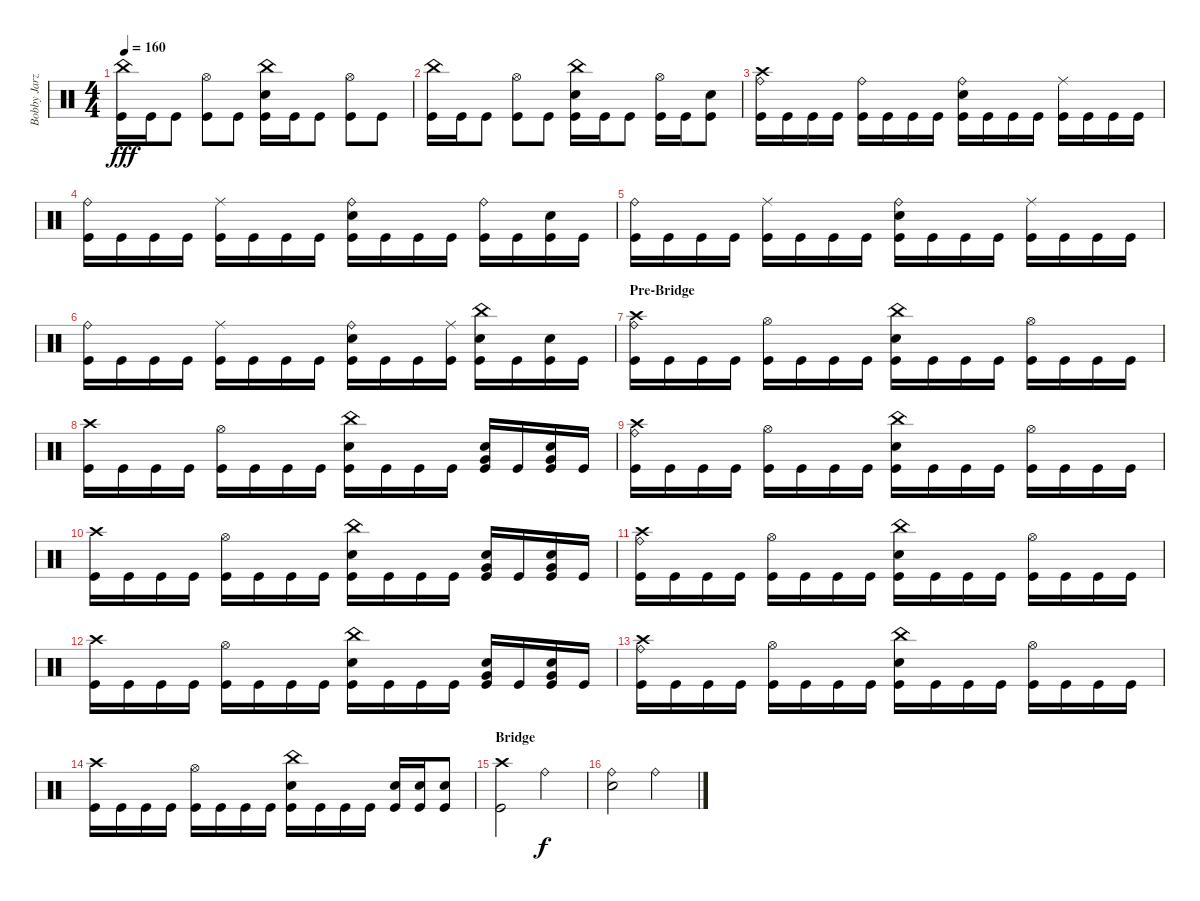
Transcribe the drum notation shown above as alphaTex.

\track ("Bobby Jarzombek" "Bobby Jarz") {instrument percussion}
\staff {score}
\articulation defaults
\ts (4 4)
\tempo 160
\clef neutral
\ks c
("China (hit)" "Kick (hit)").16{dy fff} "Kick (hit)".16 "Kick (hit)".8 ("Hi-Hat (open)" "Kick (hit)").8 "Kick (hit)".8 ("China (hit)" "Electric Snare (hit)" "Kick (hit)").16 "Kick (hit)".16 "Kick (hit)".8 ("Hi-Hat (open)" "Kick (hit)").8 "Kick (hit)".8 |
("China (hit)" "Kick (hit)").16 "Kick (hit)".16 "Kick (hit)".8 ("Hi-Hat (open)" "Kick (hit)").8 "Kick (hit)".8 ("China (hit)" "Electric Snare (hit)" "Kick (hit)").16 "Kick (hit)".16 "Kick (hit)".8 ("Hi-Hat (open)" "Kick (hit)").16 "Kick (hit)".16 ("Electric Snare (hit)" "Kick (hit)").8 |
("Crash high (hit)" "Ride (bell)" "Kick (hit)").16 "Kick (hit)".16 "Kick (hit)".16 "Kick (hit)".16 ("Ride (bell)" "Kick (hit)").16 "Kick (hit)".16 "Kick (hit)".16 "Kick (hit)".16 ("Ride (bell)" "Electric Snare (hit)" "Kick (hit)").16 "Kick (hit)".16 "Kick (hit)".16 "Kick (hit)".16 ("Ride (middle)" "Kick (hit)").16 "Kick (hit)".16 "Kick (hit)".16 "Kick (hit)".16 |
("Ride (bell)" "Kick (hit)").16 "Kick (hit)".16 "Kick (hit)".16 "Kick (hit)".16 ("Ride (middle)" "Kick (hit)").16 "Kick (hit)".16 "Kick (hit)".16 "Kick (hit)".16 ("Ride (bell)" "Electric Snare (hit)" "Kick (hit)").16 "Kick (hit)".16 "Kick (hit)".16 "Kick (hit)".16 ("Ride (bell)" "Kick (hit)").16 "Kick (hit)".16 ("Electric Snare (hit)" "Kick (hit)").16 "Kick (hit)".16 |
("Ride (bell)" "Kick (hit)").16 "Kick (hit)".16 "Kick (hit)".16 "Kick (hit)".16 ("Ride (middle)" "Kick (hit)").16 "Kick (hit)".16 "Kick (hit)".16 "Kick (hit)".16 ("Ride (bell)" "Electric Snare (hit)" "Kick (hit)").16 "Kick (hit)".16 "Kick (hit)".16 "Kick (hit)".16 ("Ride (middle)" "Kick (hit)").16 "Kick (hit)".16 "Kick (hit)".16 "Kick (hit)".16 |
("Ride (bell)" "Kick (hit)").16 "Kick (hit)".16 "Kick (hit)".16 "Kick (hit)".16 ("Ride (middle)" "Kick (hit)").16 "Kick (hit)".16 "Kick (hit)".16 "Kick (hit)".16 ("Ride (bell)" "Electric Snare (hit)" "Kick (hit)").16 "Kick (hit)".16 "Kick (hit)".16 ("Ride (middle)" "Kick (hit)").16 ("China (hit)" "Electric Snare (hit)" "Kick (hit)").16 "Kick (hit)".16 ("Electric Snare (hit)" "Kick (hit)").16 "Kick (hit)".16 |
\section ("" "Pre-Bridge")
("Crash high (hit)" "Ride (bell)" "Kick (hit)").16 "Kick (hit)".16 "Kick (hit)".16 "Kick (hit)".16 ("Hi-Hat (open)" "Kick (hit)").16 "Kick (hit)".16 "Kick (hit)".16 "Kick (hit)".16 ("China (hit)" "Electric Snare (hit)" "Kick (hit)").16 "Kick (hit)".16 "Kick (hit)".16 "Kick (hit)".16 ("Hi-Hat (open)" "Kick (hit)").16 "Kick (hit)".16 "Kick (hit)".16 "Kick (hit)".16 |
("Crash high (hit)" "Kick (hit)").16 "Kick (hit)".16 "Kick (hit)".16 "Kick (hit)".16 ("Hi-Hat (open)" "Kick (hit)").16 "Kick (hit)".16 "Kick (hit)".16 "Kick (hit)".16 ("China (hit)" "Electric Snare (hit)" "Kick (hit)").16 "Kick (hit)".16 "Kick (hit)".16 "Kick (hit)".16 ("Very Low Tom (hit)" "Electric Snare (hit)" "Kick (hit)").16 "Kick (hit)".16 ("Very Low Tom (hit)" "Electric Snare (hit)" "Kick (hit)").16 "Kick (hit)".16 |
("Crash high (hit)" "Ride (bell)" "Kick (hit)").16 "Kick (hit)".16 "Kick (hit)".16 "Kick (hit)".16 ("Hi-Hat (open)" "Kick (hit)").16 "Kick (hit)".16 "Kick (hit)".16 "Kick (hit)".16 ("China (hit)" "Electric Snare (hit)" "Kick (hit)").16 "Kick (hit)".16 "Kick (hit)".16 "Kick (hit)".16 ("Hi-Hat (open)" "Kick (hit)").16 "Kick (hit)".16 "Kick (hit)".16 "Kick (hit)".16 |
("Crash high (hit)" "Kick (hit)").16 "Kick (hit)".16 "Kick (hit)".16 "Kick (hit)".16 ("Hi-Hat (open)" "Kick (hit)").16 "Kick (hit)".16 "Kick (hit)".16 "Kick (hit)".16 ("China (hit)" "Electric Snare (hit)" "Kick (hit)").16 "Kick (hit)".16 "Kick (hit)".16 "Kick (hit)".16 ("Very Low Tom (hit)" "Electric Snare (hit)" "Kick (hit)").16 "Kick (hit)".16 ("Very Low Tom (hit)" "Electric Snare (hit)" "Kick (hit)").16 "Kick (hit)".16 |
("Crash high (hit)" "Ride (bell)" "Kick (hit)").16 "Kick (hit)".16 "Kick (hit)".16 "Kick (hit)".16 ("Hi-Hat (open)" "Kick (hit)").16 "Kick (hit)".16 "Kick (hit)".16 "Kick (hit)".16 ("China (hit)" "Electric Snare (hit)" "Kick (hit)").16 "Kick (hit)".16 "Kick (hit)".16 "Kick (hit)".16 ("Hi-Hat (open)" "Kick (hit)").16 "Kick (hit)".16 "Kick (hit)".16 "Kick (hit)".16 |
("Crash high (hit)" "Kick (hit)").16 "Kick (hit)".16 "Kick (hit)".16 "Kick (hit)".16 ("Hi-Hat (open)" "Kick (hit)").16 "Kick (hit)".16 "Kick (hit)".16 "Kick (hit)".16 ("China (hit)" "Electric Snare (hit)" "Kick (hit)").16 "Kick (hit)".16 "Kick (hit)".16 "Kick (hit)".16 ("Very Low Tom (hit)" "Electric Snare (hit)" "Kick (hit)").16 "Kick (hit)".16 ("Very Low Tom (hit)" "Electric Snare (hit)" "Kick (hit)").16 "Kick (hit)".16 |
("Crash high (hit)" "Ride (bell)" "Kick (hit)").16 "Kick (hit)".16 "Kick (hit)".16 "Kick (hit)".16 ("Hi-Hat (open)" "Kick (hit)").16 "Kick (hit)".16 "Kick (hit)".16 "Kick (hit)".16 ("China (hit)" "Electric Snare (hit)" "Kick (hit)").16 "Kick (hit)".16 "Kick (hit)".16 "Kick (hit)".16 ("Hi-Hat (open)" "Kick (hit)").16 "Kick (hit)".16 "Kick (hit)".16 "Kick (hit)".16 |
("Crash high (hit)" "Kick (hit)").16 "Kick (hit)".16 "Kick (hit)".16 "Kick (hit)".16 ("Hi-Hat (open)" "Kick (hit)").16 "Kick (hit)".16 "Kick (hit)".16 "Kick (hit)".16 ("China (hit)" "Electric Snare (hit)" "Kick (hit)").16 "Kick (hit)".16 "Kick (hit)".16 "Kick (hit)".16 ("Electric Snare (hit)" "Kick (hit)").16 ("Electric Snare (hit)" "Kick (hit)").16 ("Electric Snare (hit)" "Kick (hit)").8 |
\section ("" "Bridge")
("Crash high (hit)" "Kick (hit)").2 "Ride (bell)".2{dy f} |
("Ride (bell)" "Electric Snare (hit)").2 "Ride (bell)".2
